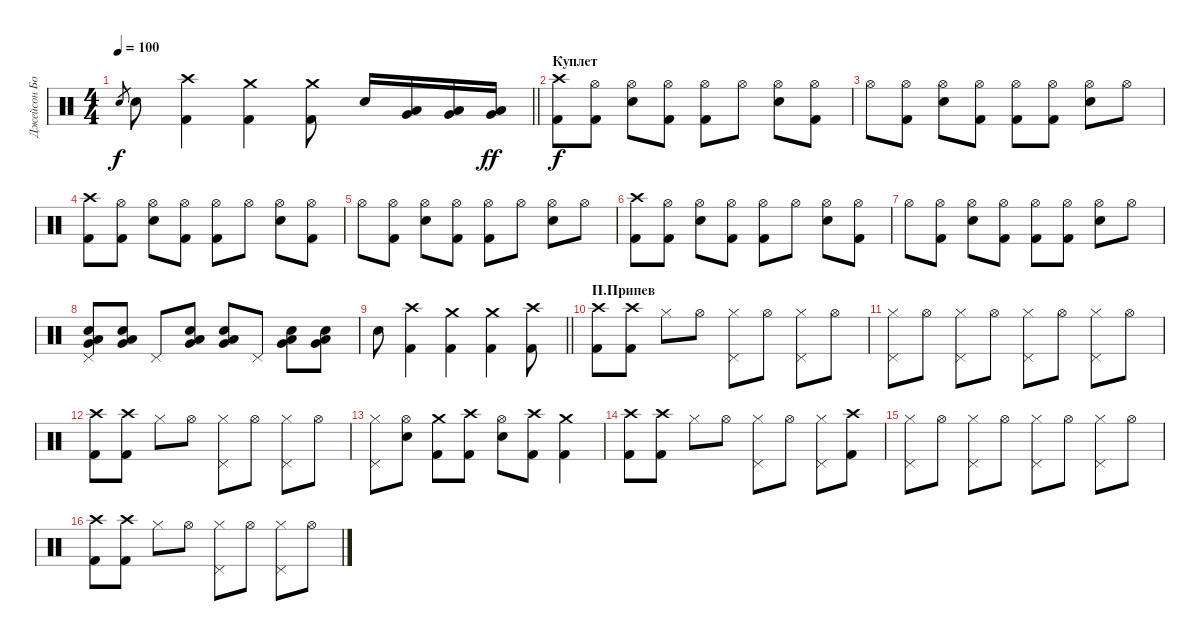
\track ("Джейсон Бонэм" "Джейсон Бо") {instrument percussion}
\staff {score}
\articulation defaults
\ts (4 4)
\tempo 100
\clef neutral
\barLineRight lightlight
\ks c "Snare (hit) 2".8{gr dy f} "Snare (hit) 2".8
("Crash high (hit)" "Kick (hit) 2").4 ("Crash medium (hit)" "Kick (hit) 2").4 ("Crash medium (hit)" "Kick (hit) 2").8 "Snare (hit) 2".16 ("Very Low Tom (hit)" "Low Tom (hit)").16 ("Very Low Tom (hit)" "Low Tom (hit)").16 ("Very Low Tom (hit)" "Low Floor Tom (hit)").16{dy ff} |
\section ("" "Куплет")
("Crash high (hit)" "Kick (hit) 2").8{dy f} ("Hi-Hat (open)" "Kick (hit) 2").8 ("Hi-Hat (open)" "Snare (hit) 2").8 ("Hi-Hat (open)" "Kick (hit) 2").8 ("Hi-Hat (open)" "Kick (hit) 2").8 "Hi-Hat (open)".8 ("Hi-Hat (open)" "Snare (hit) 2").8 ("Hi-Hat (open)" "Kick (hit) 2").8 |
"Hi-Hat (open)".8 ("Hi-Hat (open)" "Kick (hit) 2").8 ("Hi-Hat (open)" "Snare (hit) 2").8 ("Hi-Hat (open)" "Kick (hit) 2").8 ("Hi-Hat (open)" "Kick (hit) 2").8 ("Hi-Hat (open)" "Kick (hit) 2").8 ("Hi-Hat (open)" "Snare (hit) 2").8 "Hi-Hat (open)".8 |
("Crash high (hit)" "Kick (hit) 2").8 ("Hi-Hat (open)" "Kick (hit) 2").8 ("Hi-Hat (open)" "Snare (hit) 2").8 ("Hi-Hat (open)" "Kick (hit) 2").8 ("Hi-Hat (open)" "Kick (hit) 2").8 "Hi-Hat (open)".8 ("Hi-Hat (open)" "Snare (hit) 2").8 ("Hi-Hat (open)" "Kick (hit) 2").8 |
"Hi-Hat (open)".8 ("Hi-Hat (open)" "Kick (hit) 2").8 ("Hi-Hat (open)" "Snare (hit) 2").8 ("Hi-Hat (open)" "Kick (hit) 2").8 ("Hi-Hat (open)" "Kick (hit) 2").8 "Hi-Hat (open)".8 ("Hi-Hat (open)" "Snare (hit) 2").8 "Hi-Hat (open)".8 |
("Crash high (hit)" "Kick (hit) 2").8 ("Hi-Hat (open)" "Kick (hit) 2").8 ("Hi-Hat (open)" "Snare (hit) 2").8 ("Hi-Hat (open)" "Kick (hit) 2").8 ("Hi-Hat (open)" "Kick (hit) 2").8 "Hi-Hat (open)".8 ("Hi-Hat (open)" "Snare (hit) 2").8 ("Hi-Hat (open)" "Kick (hit) 2").8 |
"Hi-Hat (open)".8 ("Hi-Hat (open)" "Kick (hit) 2").8 ("Hi-Hat (open)" "Snare (hit) 2").8 ("Hi-Hat (open)" "Kick (hit) 2").8 ("Hi-Hat (open)" "Kick (hit) 2").8 ("Hi-Hat (open)" "Kick (hit) 2").8 ("Hi-Hat (open)" "Snare (hit) 2").8 "Hi-Hat (open)".8 |
("Very Low Tom (hit)" "Low Floor Tom (hit)" "Snare (hit) 2" "Pedal Hi-Hat (hit)").8 ("Very Low Tom (hit)" "Low Floor Tom (hit)" "Snare (hit) 2").8 "Pedal Hi-Hat (hit)".8 ("Very Low Tom (hit)" "Low Floor Tom (hit)" "Snare (hit) 2").8 ("Very Low Tom (hit)" "Low Floor Tom (hit)" "Snare (hit) 2").8 "Pedal Hi-Hat (hit)".8 ("Very Low Tom (hit)" "Low Floor Tom (hit)" "Snare (hit) 2").8 ("Very Low Tom (hit)" "Low Floor Tom (hit)" "Snare (hit) 2").8 |
\barLineRight lightlight "Snare (hit) 2".8
("Crash high (hit)" "Kick (hit) 2").4 ("Crash medium (hit)" "Kick (hit) 2").4 ("Crash medium (hit)" "Kick (hit) 2").4 ("Crash high (hit)" "Kick (hit) 2").8 |
\section ("" "П.Припев")
("Crash high (hit)" "Kick (hit) 2").8 ("Crash high (hit)" "Kick (hit) 2").8 "Hi-Hat (closed)".8 "Hi-Hat (open)".8 ("Hi-Hat (closed)" "Pedal Hi-Hat (hit)").8 "Hi-Hat (open)".8 ("Hi-Hat (closed)" "Pedal Hi-Hat (hit)").8 "Hi-Hat (open)".8 |
("Hi-Hat (closed)" "Pedal Hi-Hat (hit)").8 "Hi-Hat (open)".8 ("Hi-Hat (closed)" "Pedal Hi-Hat (hit)").8 "Hi-Hat (open)".8 ("Hi-Hat (closed)" "Pedal Hi-Hat (hit)").8 "Hi-Hat (open)".8 ("Hi-Hat (closed)" "Pedal Hi-Hat (hit)").8 "Hi-Hat (open)".8 |
("Crash high (hit)" "Kick (hit) 2").8 ("Crash high (hit)" "Kick (hit) 2").8 "Hi-Hat (closed)".8 "Hi-Hat (open)".8 ("Hi-Hat (closed)" "Pedal Hi-Hat (hit)").8 "Hi-Hat (open)".8 ("Hi-Hat (closed)" "Pedal Hi-Hat (hit)").8 "Hi-Hat (open)".8 |
("Hi-Hat (closed)" "Pedal Hi-Hat (hit)").8 ("Hi-Hat (open)" "Snare (hit) 2").8 ("Crash medium (hit)" "Kick (hit) 2").8 ("Crash high (hit)" "Kick (hit) 2").8 ("Hi-Hat (open)" "Snare (hit) 2").8 ("Crash high (hit)" "Kick (hit) 2").8 ("Crash medium (hit)" "Kick (hit) 2").4 |
("Crash high (hit)" "Kick (hit) 2").8 ("Crash high (hit)" "Kick (hit) 2").8 "Hi-Hat (closed)".8 "Hi-Hat (open)".8 ("Hi-Hat (closed)" "Pedal Hi-Hat (hit)").8 "Hi-Hat (open)".8 ("Hi-Hat (closed)" "Pedal Hi-Hat (hit)").8 ("Crash high (hit)" "Kick (hit) 2").8 |
("Hi-Hat (closed)" "Pedal Hi-Hat (hit)").8 "Hi-Hat (open)".8 ("Hi-Hat (closed)" "Pedal Hi-Hat (hit)").8 "Hi-Hat (open)".8 ("Hi-Hat (closed)" "Pedal Hi-Hat (hit)").8 "Hi-Hat (open)".8 ("Hi-Hat (closed)" "Pedal Hi-Hat (hit)").8 "Hi-Hat (open)".8 |
("Crash high (hit)" "Kick (hit) 2").8 ("Crash high (hit)" "Kick (hit) 2").8 "Hi-Hat (closed)".8 "Hi-Hat (open)".8 ("Hi-Hat (closed)" "Pedal Hi-Hat (hit)").8 "Hi-Hat (open)".8 ("Hi-Hat (closed)" "Pedal Hi-Hat (hit)").8 "Hi-Hat (open)".8
